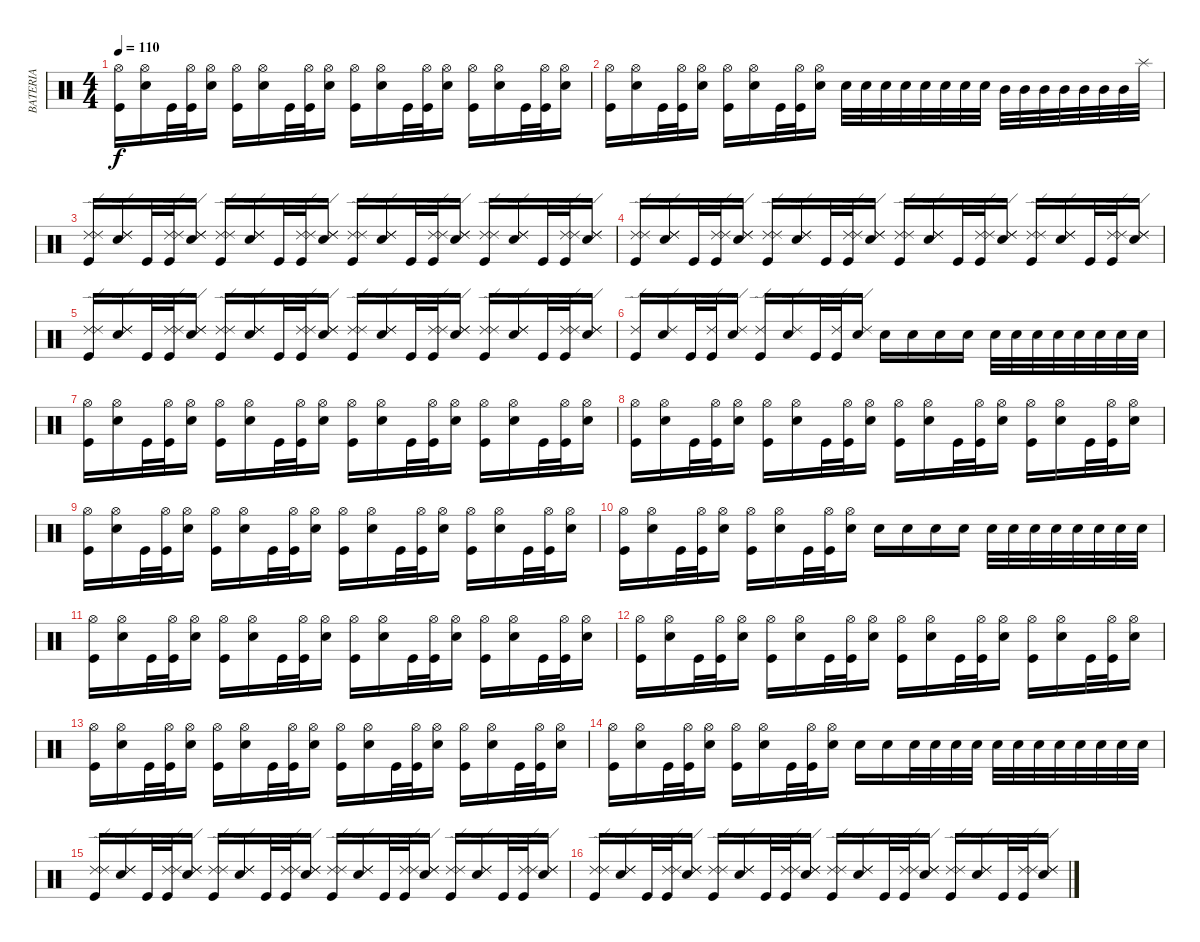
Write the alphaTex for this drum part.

\track ("BATERIA" "BATERIA") {instrument percussion}
\staff {score}
\articulation defaults
\ts (4 4)
\tempo 110
\clef neutral
\ks c
("Kick (hit)" "Hi-Hat (open)").16{dy f} ("Snare (hit) 2" "Hi-Hat (open)").16 "Kick (hit)".32 ("Kick (hit)" "Hi-Hat (open)").32 ("Snare (hit) 2" "Hi-Hat (open)").16 ("Kick (hit)" "Hi-Hat (open)").16 ("Snare (hit) 2" "Hi-Hat (open)").16 "Kick (hit)".32 ("Kick (hit)" "Hi-Hat (open)").32 ("Snare (hit) 2" "Hi-Hat (open)").16 ("Kick (hit)" "Hi-Hat (open)").16 ("Snare (hit) 2" "Hi-Hat (open)").16 "Kick (hit)".32 ("Kick (hit)" "Hi-Hat (open)").32 ("Snare (hit) 2" "Hi-Hat (open)").16 ("Kick (hit)" "Hi-Hat (open)").16 ("Snare (hit) 2" "Hi-Hat (open)").16 "Kick (hit)".32 ("Kick (hit)" "Hi-Hat (open)").32 ("Snare (hit) 2" "Hi-Hat (open)").16 |
("Kick (hit)" "Hi-Hat (open)").16 ("Snare (hit) 2" "Hi-Hat (open)").16 "Kick (hit)".32 ("Kick (hit)" "Hi-Hat (open)").32 ("Snare (hit) 2" "Hi-Hat (open)").16 ("Kick (hit)" "Hi-Hat (open)").16 ("Snare (hit) 2" "Hi-Hat (open)").16 "Kick (hit)".32 ("Kick (hit)" "Hi-Hat (open)").32 ("Snare (hit) 2" "Hi-Hat (open)").16 "Snare (hit) 2".32 "Snare (hit) 2".32 "Snare (hit) 2".32 "Snare (hit) 2".32 "Snare (hit) 2".32 "Snare (hit) 2".32 "Snare (hit) 2".32 "Snare (hit) 2".32 "Mid Tom (hit)".32 "Mid Tom (hit)".32 "Mid Tom (hit)".32 "Mid Tom (hit)".32 "Mid Tom (hit)".32 "Mid Tom (hit)".32 "Mid Tom (hit)".32 "Splash (hit)".32 |
("Kick (hit)" "Ride (edge) 2" "Ride (edge) 2").16 ("Snare (hit) 2" "Ride (edge) 2" "Ride (edge) 2").16 "Kick (hit)".32 ("Kick (hit)" "Ride (edge) 2" "Ride (edge) 2").32 ("Snare (hit) 2" "Ride (edge) 2" "Ride (edge) 2").16 ("Kick (hit)" "Ride (edge) 2" "Ride (edge) 2").16 ("Snare (hit) 2" "Ride (edge) 2" "Ride (edge) 2").16 "Kick (hit)".32 ("Kick (hit)" "Ride (edge) 2" "Ride (edge) 2").32 ("Snare (hit) 2" "Ride (edge) 2" "Ride (edge) 2").16 ("Kick (hit)" "Ride (edge) 2" "Ride (edge) 2").16 ("Snare (hit) 2" "Ride (edge) 2" "Ride (edge) 2").16 "Kick (hit)".32 ("Kick (hit)" "Ride (edge) 2" "Ride (edge) 2").32 ("Snare (hit) 2" "Ride (edge) 2" "Ride (edge) 2").16 ("Kick (hit)" "Ride (edge) 2" "Ride (edge) 2").16 ("Snare (hit) 2" "Ride (edge) 2" "Ride (edge) 2").16 "Kick (hit)".32 ("Kick (hit)" "Ride (edge) 2" "Ride (edge) 2").32 ("Snare (hit) 2" "Ride (edge) 2" "Ride (edge) 2").16 |
("Kick (hit)" "Ride (edge) 2" "Ride (edge) 2").16 ("Snare (hit) 2" "Ride (edge) 2" "Ride (edge) 2").16 "Kick (hit)".32 ("Kick (hit)" "Ride (edge) 2" "Ride (edge) 2").32 ("Snare (hit) 2" "Ride (edge) 2" "Ride (edge) 2").16 ("Kick (hit)" "Ride (edge) 2" "Ride (edge) 2").16 ("Snare (hit) 2" "Ride (edge) 2" "Ride (edge) 2").16 "Kick (hit)".32 ("Kick (hit)" "Ride (edge) 2" "Ride (edge) 2").32 ("Snare (hit) 2" "Ride (edge) 2" "Ride (edge) 2").16 ("Kick (hit)" "Ride (edge) 2" "Ride (edge) 2").16 ("Snare (hit) 2" "Ride (edge) 2" "Ride (edge) 2").16 "Kick (hit)".32 ("Kick (hit)" "Ride (edge) 2" "Ride (edge) 2").32 ("Snare (hit) 2" "Ride (edge) 2" "Ride (edge) 2").16 ("Kick (hit)" "Ride (edge) 2" "Ride (edge) 2").16 ("Snare (hit) 2" "Ride (edge) 2" "Ride (edge) 2").16 "Kick (hit)".32 ("Kick (hit)" "Ride (edge) 2" "Ride (edge) 2").32 ("Snare (hit) 2" "Ride (edge) 2" "Ride (edge) 2").16 |
("Kick (hit)" "Ride (edge) 2" "Ride (edge) 2").16 ("Snare (hit) 2" "Ride (edge) 2" "Ride (edge) 2").16 "Kick (hit)".32 ("Kick (hit)" "Ride (edge) 2" "Ride (edge) 2").32 ("Snare (hit) 2" "Ride (edge) 2" "Ride (edge) 2").16 ("Kick (hit)" "Ride (edge) 2" "Ride (edge) 2").16 ("Snare (hit) 2" "Ride (edge) 2" "Ride (edge) 2").16 "Kick (hit)".32 ("Kick (hit)" "Ride (edge) 2" "Ride (edge) 2").32 ("Snare (hit) 2" "Ride (edge) 2" "Ride (edge) 2").16 ("Kick (hit)" "Ride (edge) 2" "Ride (edge) 2").16 ("Snare (hit) 2" "Ride (edge) 2" "Ride (edge) 2").16 "Kick (hit)".32 ("Kick (hit)" "Ride (edge) 2" "Ride (edge) 2").32 ("Snare (hit) 2" "Ride (edge) 2" "Ride (edge) 2").16 ("Kick (hit)" "Ride (edge) 2" "Ride (edge) 2").16 ("Snare (hit) 2" "Ride (edge) 2" "Ride (edge) 2").16 "Kick (hit)".32 ("Kick (hit)" "Ride (edge) 2" "Ride (edge) 2").32 ("Snare (hit) 2" "Ride (edge) 2" "Ride (edge) 2").16 |
("Kick (hit)" "Ride (edge) 2").16 ("Snare (hit) 2" "Ride (edge) 2").16 "Kick (hit)".32 ("Kick (hit)" "Ride (edge) 2").32 ("Snare (hit) 2" "Ride (edge) 2").16 ("Kick (hit)" "Ride (edge) 2").16 ("Snare (hit) 2" "Ride (edge) 2").16 "Kick (hit)".32 ("Kick (hit)" "Ride (edge) 2").32 ("Snare (hit) 2" "Ride (edge) 2").16 "Snare (hit) 2".16 "Snare (hit) 2".16 "Snare (hit) 2".16 "Snare (hit) 2".16 "Snare (hit) 2".32 "Snare (hit) 2".32 "Snare (hit) 2".32 "Snare (hit) 2".32 "Snare (hit) 2".32 "Snare (hit) 2".32 "Snare (hit) 2".32 "Snare (hit) 2".32 |
("Kick (hit)" "Hi-Hat (open)").16 ("Snare (hit) 2" "Hi-Hat (open)").16 "Kick (hit)".32 ("Kick (hit)" "Hi-Hat (open)").32 ("Snare (hit) 2" "Hi-Hat (open)").16 ("Kick (hit)" "Hi-Hat (open)").16 ("Snare (hit) 2" "Hi-Hat (open)").16 "Kick (hit)".32 ("Kick (hit)" "Hi-Hat (open)").32 ("Snare (hit) 2" "Hi-Hat (open)").16 ("Kick (hit)" "Hi-Hat (open)").16 ("Snare (hit) 2" "Hi-Hat (open)").16 "Kick (hit)".32 ("Kick (hit)" "Hi-Hat (open)").32 ("Snare (hit) 2" "Hi-Hat (open)").16 ("Kick (hit)" "Hi-Hat (open)").16 ("Snare (hit) 2" "Hi-Hat (open)").16 "Kick (hit)".32 ("Kick (hit)" "Hi-Hat (open)").32 ("Snare (hit) 2" "Hi-Hat (open)").16 |
("Kick (hit)" "Hi-Hat (open)").16 ("Snare (hit) 2" "Hi-Hat (open)").16 "Kick (hit)".32 ("Kick (hit)" "Hi-Hat (open)").32 ("Snare (hit) 2" "Hi-Hat (open)").16 ("Kick (hit)" "Hi-Hat (open)").16 ("Snare (hit) 2" "Hi-Hat (open)").16 "Kick (hit)".32 ("Kick (hit)" "Hi-Hat (open)").32 ("Snare (hit) 2" "Hi-Hat (open)").16 ("Kick (hit)" "Hi-Hat (open)").16 ("Snare (hit) 2" "Hi-Hat (open)").16 "Kick (hit)".32 ("Kick (hit)" "Hi-Hat (open)").32 ("Snare (hit) 2" "Hi-Hat (open)").16 ("Kick (hit)" "Hi-Hat (open)").16 ("Snare (hit) 2" "Hi-Hat (open)").16 "Kick (hit)".32 ("Kick (hit)" "Hi-Hat (open)").32 ("Snare (hit) 2" "Hi-Hat (open)").16 |
("Kick (hit)" "Hi-Hat (open)").16 ("Snare (hit) 2" "Hi-Hat (open)").16 "Kick (hit)".32 ("Kick (hit)" "Hi-Hat (open)").32 ("Snare (hit) 2" "Hi-Hat (open)").16 ("Kick (hit)" "Hi-Hat (open)").16 ("Snare (hit) 2" "Hi-Hat (open)").16 "Kick (hit)".32 ("Kick (hit)" "Hi-Hat (open)").32 ("Snare (hit) 2" "Hi-Hat (open)").16 ("Kick (hit)" "Hi-Hat (open)").16 ("Snare (hit) 2" "Hi-Hat (open)").16 "Kick (hit)".32 ("Kick (hit)" "Hi-Hat (open)").32 ("Snare (hit) 2" "Hi-Hat (open)").16 ("Kick (hit)" "Hi-Hat (open)").16 ("Snare (hit) 2" "Hi-Hat (open)").16 "Kick (hit)".32 ("Kick (hit)" "Hi-Hat (open)").32 ("Snare (hit) 2" "Hi-Hat (open)").16 |
("Kick (hit)" "Hi-Hat (open)").16 ("Snare (hit) 2" "Hi-Hat (open)").16 "Kick (hit)".32 ("Kick (hit)" "Hi-Hat (open)").32 ("Snare (hit) 2" "Hi-Hat (open)").16 ("Kick (hit)" "Hi-Hat (open)").16 ("Snare (hit) 2" "Hi-Hat (open)").16 "Kick (hit)".32 ("Kick (hit)" "Hi-Hat (open)").32 ("Snare (hit) 2" "Hi-Hat (open)").16 "Snare (hit) 2".16 "Snare (hit) 2".16 "Snare (hit) 2".16 "Snare (hit) 2".16 "Snare (hit) 2".32 "Snare (hit) 2".32 "Snare (hit) 2".32 "Snare (hit) 2".32 "Snare (hit) 2".32 "Snare (hit) 2".32 "Snare (hit) 2".32 "Snare (hit) 2".32 |
("Kick (hit)" "Hi-Hat (open)").16 ("Snare (hit) 2" "Hi-Hat (open)").16 "Kick (hit)".32 ("Kick (hit)" "Hi-Hat (open)").32 ("Snare (hit) 2" "Hi-Hat (open)").16 ("Kick (hit)" "Hi-Hat (open)").16 ("Snare (hit) 2" "Hi-Hat (open)").16 "Kick (hit)".32 ("Kick (hit)" "Hi-Hat (open)").32 ("Snare (hit) 2" "Hi-Hat (open)").16 ("Kick (hit)" "Hi-Hat (open)").16 ("Snare (hit) 2" "Hi-Hat (open)").16 "Kick (hit)".32 ("Kick (hit)" "Hi-Hat (open)").32 ("Snare (hit) 2" "Hi-Hat (open)").16 ("Kick (hit)" "Hi-Hat (open)").16 ("Snare (hit) 2" "Hi-Hat (open)").16 "Kick (hit)".32 ("Kick (hit)" "Hi-Hat (open)").32 ("Snare (hit) 2" "Hi-Hat (open)").16 |
("Kick (hit)" "Hi-Hat (open)").16 ("Snare (hit) 2" "Hi-Hat (open)").16 "Kick (hit)".32 ("Kick (hit)" "Hi-Hat (open)").32 ("Snare (hit) 2" "Hi-Hat (open)").16 ("Kick (hit)" "Hi-Hat (open)").16 ("Snare (hit) 2" "Hi-Hat (open)").16 "Kick (hit)".32 ("Kick (hit)" "Hi-Hat (open)").32 ("Snare (hit) 2" "Hi-Hat (open)").16 ("Kick (hit)" "Hi-Hat (open)").16 ("Snare (hit) 2" "Hi-Hat (open)").16 "Kick (hit)".32 ("Kick (hit)" "Hi-Hat (open)").32 ("Snare (hit) 2" "Hi-Hat (open)").16 ("Kick (hit)" "Hi-Hat (open)").16 ("Snare (hit) 2" "Hi-Hat (open)").16 "Kick (hit)".32 ("Kick (hit)" "Hi-Hat (open)").32 ("Snare (hit) 2" "Hi-Hat (open)").16 |
("Kick (hit)" "Hi-Hat (open)").16 ("Snare (hit) 2" "Hi-Hat (open)").16 "Kick (hit)".32 ("Kick (hit)" "Hi-Hat (open)").32 ("Snare (hit) 2" "Hi-Hat (open)").16 ("Kick (hit)" "Hi-Hat (open)").16 ("Snare (hit) 2" "Hi-Hat (open)").16 "Kick (hit)".32 ("Kick (hit)" "Hi-Hat (open)").32 ("Snare (hit) 2" "Hi-Hat (open)").16 ("Kick (hit)" "Hi-Hat (open)").16 ("Snare (hit) 2" "Hi-Hat (open)").16 "Kick (hit)".32 ("Kick (hit)" "Hi-Hat (open)").32 ("Snare (hit) 2" "Hi-Hat (open)").16 ("Kick (hit)" "Hi-Hat (open)").16 ("Snare (hit) 2" "Hi-Hat (open)").16 "Kick (hit)".32 ("Kick (hit)" "Hi-Hat (open)").32 ("Snare (hit) 2" "Hi-Hat (open)").16 |
("Kick (hit)" "Hi-Hat (open)").16 ("Snare (hit) 2" "Hi-Hat (open)").16 "Kick (hit)".32 ("Kick (hit)" "Hi-Hat (open)").32 ("Snare (hit) 2" "Hi-Hat (open)").16 ("Kick (hit)" "Hi-Hat (open)").16 ("Snare (hit) 2" "Hi-Hat (open)").16 "Kick (hit)".32 ("Kick (hit)" "Hi-Hat (open)").32 ("Snare (hit) 2" "Hi-Hat (open)").16 "Snare (hit) 2".16 "Snare (hit) 2".16 "Snare (hit) 2".32 "Snare (hit) 2".32 "Snare (hit) 2".32 "Snare (hit) 2".32 "Snare (hit) 2".32 "Snare (hit) 2".32 "Snare (hit) 2".32 "Snare (hit) 2".32 "Snare (hit) 2".32 "Snare (hit) 2".32 "Snare (hit) 2".32 "Snare (hit) 2".32 |
("Kick (hit)" "Ride (edge) 2" "Ride (edge) 2").16 ("Snare (hit) 2" "Ride (edge) 2" "Ride (edge) 2").16 "Kick (hit)".32 ("Kick (hit)" "Ride (edge) 2" "Ride (edge) 2").32 ("Snare (hit) 2" "Ride (edge) 2" "Ride (edge) 2").16 ("Kick (hit)" "Ride (edge) 2" "Ride (edge) 2").16 ("Snare (hit) 2" "Ride (edge) 2" "Ride (edge) 2").16 "Kick (hit)".32 ("Kick (hit)" "Ride (edge) 2" "Ride (edge) 2").32 ("Snare (hit) 2" "Ride (edge) 2" "Ride (edge) 2").16 ("Kick (hit)" "Ride (edge) 2" "Ride (edge) 2").16 ("Snare (hit) 2" "Ride (edge) 2" "Ride (edge) 2").16 "Kick (hit)".32 ("Kick (hit)" "Ride (edge) 2" "Ride (edge) 2").32 ("Snare (hit) 2" "Ride (edge) 2" "Ride (edge) 2").16 ("Kick (hit)" "Ride (edge) 2" "Ride (edge) 2").16 ("Snare (hit) 2" "Ride (edge) 2" "Ride (edge) 2").16 "Kick (hit)".32 ("Kick (hit)" "Ride (edge) 2" "Ride (edge) 2").32 ("Snare (hit) 2" "Ride (edge) 2" "Ride (edge) 2").16 |
("Kick (hit)" "Ride (edge) 2" "Ride (edge) 2").16 ("Snare (hit) 2" "Ride (edge) 2" "Ride (edge) 2").16 "Kick (hit)".32 ("Kick (hit)" "Ride (edge) 2" "Ride (edge) 2").32 ("Snare (hit) 2" "Ride (edge) 2" "Ride (edge) 2").16 ("Kick (hit)" "Ride (edge) 2" "Ride (edge) 2").16 ("Snare (hit) 2" "Ride (edge) 2" "Ride (edge) 2").16 "Kick (hit)".32 ("Kick (hit)" "Ride (edge) 2" "Ride (edge) 2").32 ("Snare (hit) 2" "Ride (edge) 2" "Ride (edge) 2").16 ("Kick (hit)" "Ride (edge) 2" "Ride (edge) 2").16 ("Snare (hit) 2" "Ride (edge) 2" "Ride (edge) 2").16 "Kick (hit)".32 ("Kick (hit)" "Ride (edge) 2" "Ride (edge) 2").32 ("Snare (hit) 2" "Ride (edge) 2" "Ride (edge) 2").16 ("Kick (hit)" "Ride (edge) 2" "Ride (edge) 2").16 ("Snare (hit) 2" "Ride (edge) 2" "Ride (edge) 2").16 "Kick (hit)".32 ("Kick (hit)" "Ride (edge) 2" "Ride (edge) 2").32 ("Snare (hit) 2" "Ride (edge) 2" "Ride (edge) 2").16
